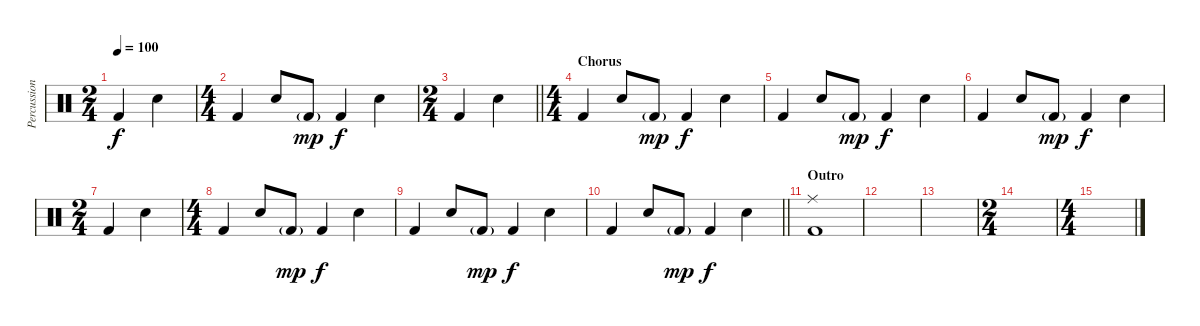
\track ("Percussion" "Percussion") {instrument percussion}
\staff {score}
\articulation defaults
\ts (2 4)
\tempo 100
\clef neutral
\ks c "Kick (hit) 2".4{dy f} "Snare (hit) 2".4
|
\ts (4 4)
"Kick (hit) 2".4 "Snare (hit) 2".8 "Kick (hit) 2"{g}.8{dy mp} "Kick (hit) 2".4{dy f} "Snare (hit) 2".4 |
\ts (2 4)
\barLineRight lightlight "Kick (hit) 2".4 "Snare (hit) 2".4
|
\ts (4 4)
\section ("" "Chorus")
"Kick (hit) 2".4 "Snare (hit) 2".8 "Kick (hit) 2"{g}.8{dy mp} "Kick (hit) 2".4{dy f} "Snare (hit) 2".4 |
"Kick (hit) 2".4 "Snare (hit) 2".8 "Kick (hit) 2"{g}.8{dy mp} "Kick (hit) 2".4{dy f} "Snare (hit) 2".4 |
"Kick (hit) 2".4 "Snare (hit) 2".8 "Kick (hit) 2"{g}.8{dy mp} "Kick (hit) 2".4{dy f} "Snare (hit) 2".4 |
\ts (2 4)
"Kick (hit) 2".4 "Snare (hit) 2".4 |
\ts (4 4)
"Kick (hit) 2".4 "Snare (hit) 2".8 "Kick (hit) 2"{g}.8{dy mp} "Kick (hit) 2".4{dy f} "Snare (hit) 2".4 |
"Kick (hit) 2".4 "Snare (hit) 2".8 "Kick (hit) 2"{g}.8{dy mp} "Kick (hit) 2".4{dy f} "Snare (hit) 2".4 |
\barLineRight lightlight "Kick (hit) 2".4 "Snare (hit) 2".8 "Kick (hit) 2"{g}.8{dy mp} "Kick (hit) 2".4{dy f} "Snare (hit) 2".4
|
\section ("" "Outro")
("Ride (middle)" "Kick (hit) 2").1 |
|
|
\ts (2 4)
|
\ts (4 4)
